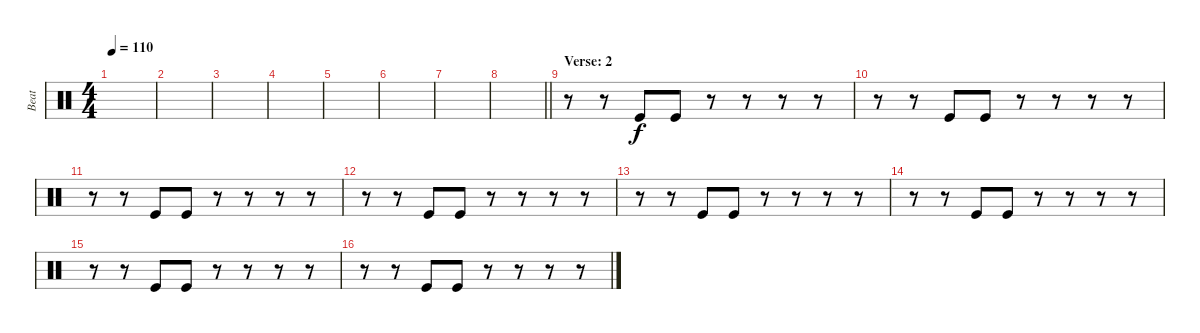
\track ("Beat" "Beat") {instrument percussion}
\staff {score}
\articulation defaults
\ts (4 4)
\tempo 110
\clef neutral
\ks c
|
|
|
|
|
|
|
\barLineRight lightlight
|
\section ("" "Verse: 2")
r.8 r.8 "Kick (hit)".8 "Kick (hit)".8 r.8 r.8 r.8 r.8 |
r.8 r.8 "Kick (hit)".8 "Kick (hit)".8 r.8 r.8 r.8 r.8 |
r.8 r.8 "Kick (hit)".8 "Kick (hit)".8 r.8 r.8 r.8 r.8 |
r.8 r.8 "Kick (hit)".8 "Kick (hit)".8 r.8 r.8 r.8 r.8 |
r.8 r.8 "Kick (hit)".8 "Kick (hit)".8 r.8 r.8 r.8 r.8 |
r.8 r.8 "Kick (hit)".8 "Kick (hit)".8 r.8 r.8 r.8 r.8 |
r.8 r.8 "Kick (hit)".8 "Kick (hit)".8 r.8 r.8 r.8 r.8 |
r.8 r.8 "Kick (hit)".8 "Kick (hit)".8 r.8 r.8 r.8 r.8
